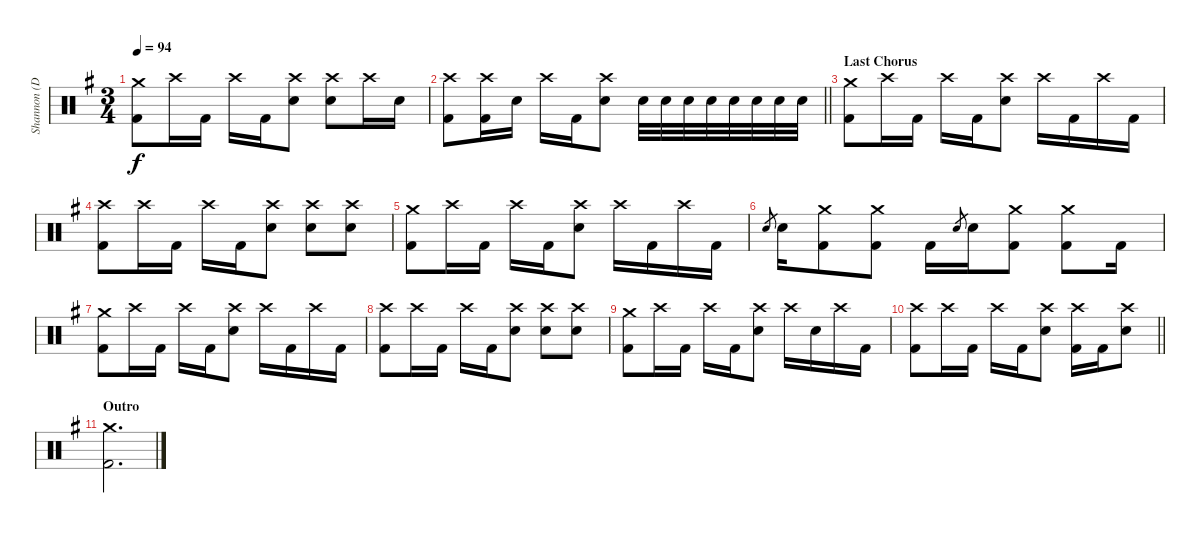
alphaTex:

\track ("Shannon (Drums)" "Shannon (D") {instrument percussion}
\staff {score}
\articulation defaults
\ts (3 4)
\tempo 94
\clef neutral
\ks g
("Crash medium (hit)" "Kick (hit) 2").8{dy f} "Crash high (hit)".16 "Kick (hit) 2".16 "Crash high (hit)".16 "Kick (hit) 2".16 ("Crash high (hit)" "Electric Snare (hit)").8 ("Crash high (hit)" "Electric Snare (hit)").8 "Crash high (hit)".16 "Electric Snare (hit)".16 |
\barLineRight lightlight
("Crash high (hit)" "Kick (hit) 2").8 ("Crash high (hit)" "Kick (hit) 2").16 "Electric Snare (hit)".16 "Crash high (hit)".16 "Kick (hit) 2".16 ("Crash high (hit)" "Electric Snare (hit)").8 "Electric Snare (hit)".32 "Electric Snare (hit)".32 "Electric Snare (hit)".32 "Electric Snare (hit)".32 "Electric Snare (hit)".32 "Electric Snare (hit)".32 "Electric Snare (hit)".32 "Electric Snare (hit)".32 |
\section ("" "Last Chorus")
("Crash medium (hit)" "Kick (hit) 2").8 "Crash high (hit)".16 "Kick (hit) 2".16 "Crash high (hit)".16 "Kick (hit) 2".16 ("Crash high (hit)" "Electric Snare (hit)").8 "Crash high (hit)".16 "Kick (hit) 2".16 "Crash high (hit)".16 "Kick (hit) 2".16 |
("Crash high (hit)" "Kick (hit) 2").8 "Crash high (hit)".16 "Kick (hit) 2".16 "Crash high (hit)".16 "Kick (hit) 2".16 ("Crash high (hit)" "Electric Snare (hit)").8 ("Crash high (hit)" "Electric Snare (hit)").8 ("Crash high (hit)" "Electric Snare (hit)").8 |
("Crash medium (hit)" "Kick (hit) 2").8 "Crash high (hit)".16 "Kick (hit) 2".16 "Crash high (hit)".16 "Kick (hit) 2".16 ("Crash high (hit)" "Electric Snare (hit)").8 "Crash high (hit)".16 "Kick (hit) 2".16 "Crash high (hit)".16 "Kick (hit) 2".16 |
"Electric Snare (hit)".8{gr} "Electric Snare (hit)".16 ("Crash medium (hit)" "Kick (hit) 2").8 ("Crash medium (hit)" "Kick (hit) 2").8 "Kick (hit) 2".16 "Electric Snare (hit)".8{gr} "Electric Snare (hit)".16 ("Crash medium (hit)" "Kick (hit) 2").8 ("Crash medium (hit)" "Kick (hit) 2").8 "Kick (hit) 2".16 |
("Crash medium (hit)" "Kick (hit) 2").8 "Crash high (hit)".16 "Kick (hit) 2".16 "Crash high (hit)".16 "Kick (hit) 2".16 ("Crash high (hit)" "Electric Snare (hit)").8 "Crash high (hit)".16 "Kick (hit) 2".16 "Crash high (hit)".16 "Kick (hit) 2".16 |
("Crash high (hit)" "Kick (hit) 2").8 "Crash high (hit)".16 "Kick (hit) 2".16 "Crash high (hit)".16 "Kick (hit) 2".16 ("Crash high (hit)" "Electric Snare (hit)").8 ("Crash high (hit)" "Electric Snare (hit)").8 ("Crash high (hit)" "Electric Snare (hit)").8 |
("Crash medium (hit)" "Kick (hit) 2").8 "Crash high (hit)".16 "Kick (hit) 2".16 "Crash high (hit)".16 "Kick (hit) 2".16 ("Crash high (hit)" "Electric Snare (hit)").8 "Crash high (hit)".16 "Electric Snare (hit)".16 "Crash high (hit)".16 "Kick (hit) 2".16 |
\barLineRight lightlight
("Crash high (hit)" "Kick (hit) 2").8 "Crash high (hit)".16 "Kick (hit) 2".16 "Crash high (hit)".16 "Kick (hit) 2".16 ("Crash high (hit)" "Electric Snare (hit)").8 ("Crash high (hit)" "Kick (hit) 2").16 "Kick (hit) 2".16 ("Crash high (hit)" "Electric Snare (hit)").8 |
\section ("" "Outro")
("Crash medium (hit)" "Kick (hit) 2").2{d}
